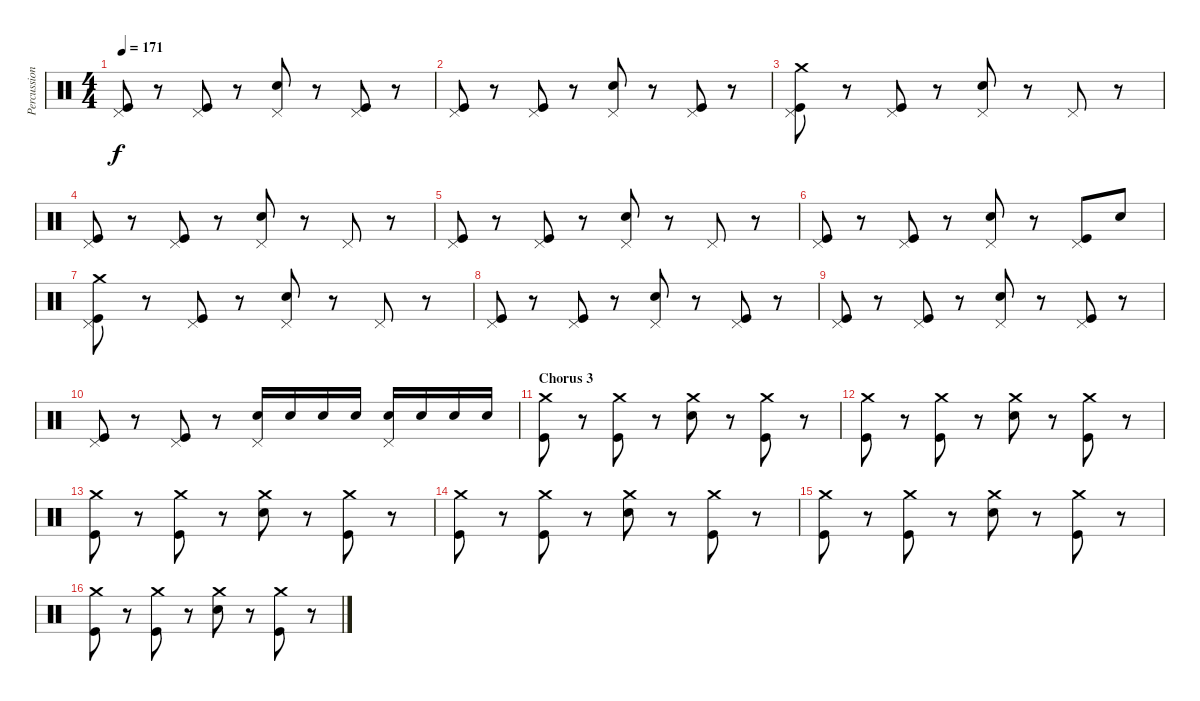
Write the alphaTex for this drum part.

\track ("Percussion" "Percussion") {instrument percussion}
\staff {score}
\articulation defaults
\ts (4 4)
\tempo 171
\clef neutral
\ks c
("Pedal Hi-Hat (hit)" "Kick (hit)").8{dy f} r.8 ("Pedal Hi-Hat (hit)" "Kick (hit)").8 r.8 ("Pedal Hi-Hat (hit)" "Electric Snare (hit)").8 r.8 ("Pedal Hi-Hat (hit)" "Kick (hit)").8 r.8 |
("Pedal Hi-Hat (hit)" "Kick (hit)").8 r.8 ("Pedal Hi-Hat (hit)" "Kick (hit)").8 r.8 ("Pedal Hi-Hat (hit)" "Electric Snare (hit)").8 r.8 ("Pedal Hi-Hat (hit)" "Kick (hit)").8 r.8 |
("Pedal Hi-Hat (hit)" "Crash medium (hit)" "Kick (hit)").8 r.8 ("Pedal Hi-Hat (hit)" "Kick (hit)").8 r.8 ("Pedal Hi-Hat (hit)" "Electric Snare (hit)").8 r.8 "Pedal Hi-Hat (hit)".8 r.8 |
("Pedal Hi-Hat (hit)" "Kick (hit)").8 r.8 ("Pedal Hi-Hat (hit)" "Kick (hit)").8 r.8 ("Pedal Hi-Hat (hit)" "Electric Snare (hit)").8 r.8 "Pedal Hi-Hat (hit)".8 r.8 |
("Pedal Hi-Hat (hit)" "Kick (hit)").8 r.8 ("Pedal Hi-Hat (hit)" "Kick (hit)").8 r.8 ("Pedal Hi-Hat (hit)" "Electric Snare (hit)").8 r.8 "Pedal Hi-Hat (hit)".8 r.8 |
("Pedal Hi-Hat (hit)" "Kick (hit)").8 r.8 ("Pedal Hi-Hat (hit)" "Kick (hit)").8 r.8 ("Pedal Hi-Hat (hit)" "Electric Snare (hit)").8 r.8 ("Pedal Hi-Hat (hit)" "Kick (hit)").8 "Electric Snare (hit)".8 |
("Pedal Hi-Hat (hit)" "Crash medium (hit)" "Kick (hit)").8 r.8 ("Pedal Hi-Hat (hit)" "Kick (hit)").8 r.8 ("Pedal Hi-Hat (hit)" "Electric Snare (hit)").8 r.8 "Pedal Hi-Hat (hit)".8 r.8 |
("Pedal Hi-Hat (hit)" "Kick (hit)").8 r.8 ("Pedal Hi-Hat (hit)" "Kick (hit)").8 r.8 ("Pedal Hi-Hat (hit)" "Electric Snare (hit)").8 r.8 ("Pedal Hi-Hat (hit)" "Kick (hit)").8 r.8 |
("Pedal Hi-Hat (hit)" "Kick (hit)").8 r.8 ("Pedal Hi-Hat (hit)" "Kick (hit)").8 r.8 ("Pedal Hi-Hat (hit)" "Electric Snare (hit)").8 r.8 ("Pedal Hi-Hat (hit)" "Kick (hit)").8 r.8 |
("Pedal Hi-Hat (hit)" "Kick (hit)").8 r.8 ("Pedal Hi-Hat (hit)" "Kick (hit)").8 r.8 ("Pedal Hi-Hat (hit)" "Electric Snare (hit)").16 "Electric Snare (hit)".16 "Electric Snare (hit)".16 "Electric Snare (hit)".16 ("Pedal Hi-Hat (hit)" "Electric Snare (hit)").16 "Electric Snare (hit)".16 "Electric Snare (hit)".16 "Electric Snare (hit)".16 |
\section ("" "Chorus 3")
("Crash medium (hit)" "Kick (hit)").8 r.8 ("Crash medium (hit)" "Kick (hit)").8 r.8 ("Crash medium (hit)" "Electric Snare (hit)").8 r.8 ("Crash medium (hit)" "Kick (hit)").8 r.8 |
("Crash medium (hit)" "Kick (hit)").8 r.8 ("Crash medium (hit)" "Kick (hit)").8 r.8 ("Crash medium (hit)" "Electric Snare (hit)").8 r.8 ("Crash medium (hit)" "Kick (hit)").8 r.8 |
("Crash medium (hit)" "Kick (hit)").8 r.8 ("Crash medium (hit)" "Kick (hit)").8 r.8 ("Crash medium (hit)" "Electric Snare (hit)").8 r.8 ("Crash medium (hit)" "Kick (hit)").8 r.8 |
("Crash medium (hit)" "Kick (hit)").8 r.8 ("Crash medium (hit)" "Kick (hit)").8 r.8 ("Crash medium (hit)" "Electric Snare (hit)").8 r.8 ("Crash medium (hit)" "Kick (hit)").8 r.8 |
("Crash medium (hit)" "Kick (hit)").8 r.8 ("Crash medium (hit)" "Kick (hit)").8 r.8 ("Crash medium (hit)" "Electric Snare (hit)").8 r.8 ("Crash medium (hit)" "Kick (hit)").8 r.8 |
("Crash medium (hit)" "Kick (hit)").8 r.8 ("Crash medium (hit)" "Kick (hit)").8 r.8 ("Crash medium (hit)" "Electric Snare (hit)").8 r.8 ("Crash medium (hit)" "Kick (hit)").8 r.8
